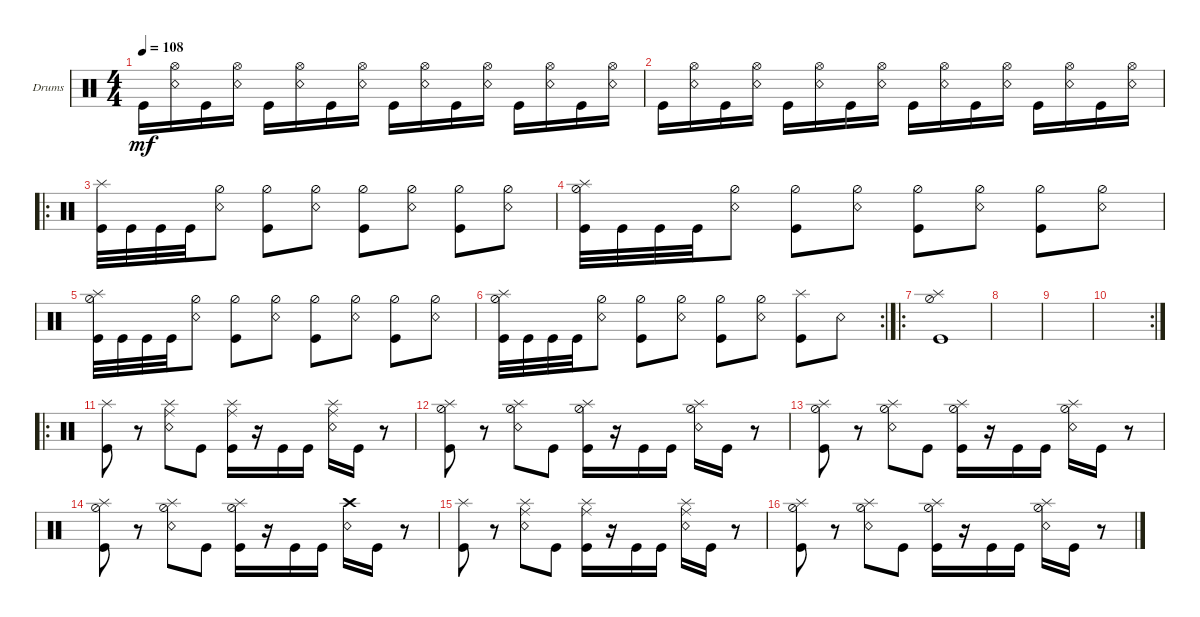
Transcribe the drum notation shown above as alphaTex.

\bracketExtendMode groupsimilarinstruments
\firstSystemTrackNameOrientation horizontal
\otherSystemsTrackNameOrientation horizontal
\track ("Drumkit" "Drums") {instrument percussion}
\staff {score}
\articulation defaults
\ts (4 4)
\tempo 108
\clef neutral
\scale
0.321839
\ks c "Kick (hit)".16{dy mf}
("Snare (rim shot)" "Hi-Hat (open)").16 "Kick (hit)".16 ("Snare (rim shot)" "Hi-Hat (open)").16 "Kick (hit)".16 ("Snare (rim shot)" "Hi-Hat (open)").16 "Kick (hit)".16 ("Snare (rim shot)" "Hi-Hat (open)").16 "Kick (hit)".16 ("Snare (rim shot)" "Hi-Hat (open)").16 "Kick (hit)".16 ("Snare (rim shot)" "Hi-Hat (open)").16 "Kick (hit)".16 ("Snare (rim shot)" "Hi-Hat (open)").16 "Kick (hit)".16 ("Snare (rim shot)" "Hi-Hat (open)").16 |
\scale
0.311111 "Kick (hit)".16 ("Snare (rim shot)" "Hi-Hat (open)").16 "Kick (hit)".16 ("Snare (rim shot)" "Hi-Hat (open)").16 "Kick (hit)".16 ("Snare (rim shot)" "Hi-Hat (open)").16 "Kick (hit)".16 ("Snare (rim shot)" "Hi-Hat (open)").16 "Kick (hit)".16 ("Snare (rim shot)" "Hi-Hat (open)").16 "Kick (hit)".16 ("Snare (rim shot)" "Hi-Hat (open)").16 "Kick (hit)".16 ("Snare (rim shot)" "Hi-Hat (open)").16 "Kick (hit)".16 ("Snare (rim shot)" "Hi-Hat (open)").16 |
\ro
\scale
0.377778 ("Kick (hit)" "Splash (hit)").32 "Kick (hit)".32 "Kick (hit)".32 "Kick (hit)".32 ("Snare (rim shot)" "Hi-Hat (half)").8 ("Kick (hit)" "Hi-Hat (half)").8 ("Snare (rim shot)" "Hi-Hat (half)").8 ("Kick (hit)" "Hi-Hat (half)").8 ("Snare (rim shot)" "Hi-Hat (half)").8 ("Kick (hit)" "Hi-Hat (half)").8 ("Snare (rim shot)" "Hi-Hat (half)").8 |
\scale
0.311111 ("Kick (hit)" "Hi-Hat (half)" "Splash (hit)").32 "Kick (hit)".32 "Kick (hit)".32 "Kick (hit)".32 ("Snare (rim shot)" "Hi-Hat (half)").8 ("Kick (hit)" "Hi-Hat (half)").8 ("Snare (rim shot)" "Hi-Hat (half)").8 ("Kick (hit)" "Hi-Hat (half)").8 ("Snare (rim shot)" "Hi-Hat (half)").8 ("Kick (hit)" "Hi-Hat (half)").8 ("Snare (rim shot)" "Hi-Hat (half)").8 |
\scale
0.301075 ("Kick (hit)" "Hi-Hat (half)" "Splash (hit)").32 "Kick (hit)".32 "Kick (hit)".32 "Kick (hit)".32 ("Snare (rim shot)" "Hi-Hat (half)").8 ("Kick (hit)" "Hi-Hat (half)").8 ("Snare (rim shot)" "Hi-Hat (half)").8 ("Kick (hit)" "Hi-Hat (half)").8 ("Snare (rim shot)" "Hi-Hat (half)").8 ("Kick (hit)" "Hi-Hat (half)").8 ("Snare (rim shot)" "Hi-Hat (half)").8 |
\rc 2
\scale
0.333333 ("Kick (hit)" "Hi-Hat (half)" "Splash (hit)").32 "Kick (hit)".32 "Kick (hit)".32 "Kick (hit)".32 ("Snare (rim shot)" "Hi-Hat (half)").8 ("Kick (hit)" "Hi-Hat (half)").8 ("Snare (rim shot)" "Hi-Hat (half)").8 ("Kick (hit)" "Hi-Hat (half)").8 ("Snare (rim shot)" "Hi-Hat (half)").8 ("Kick (hit)" "Splash (hit)").8 "Snare (rim shot)".8 |
\ro
\scale
0.365591 ("Kick (hit)" "Splash (hit)" "Hi-Hat (half)").1 |
\scale
0.321839 |
\scale
0.321839 |
\rc 2
\scale
0.356322 |
\ro
\scale
0.377778 ("Kick (hit)" "Splash (hit)").8 r.8 ("Snare (rim shot)" "Ride (middle)" "Splash (hit)").8 "Kick (hit)".8 ("Kick (hit)" "Ride (middle)" "Splash (hit)").16 r.16 "Kick (hit)".16 "Kick (hit)".16 ("Snare (rim shot)" "Ride (middle)" "Splash (hit)").16 "Kick (hit)".16 r.8 |
\scale
0.311111 ("Kick (hit)" "Hi-Hat (half)" "Splash (hit)").8 r.8 ("Snare (rim shot)" "Hi-Hat (half)" "Splash (hit)").8 "Kick (hit)".8 ("Kick (hit)" "Hi-Hat (half)" "Splash (hit)").16 r.16 "Kick (hit)".16 "Kick (hit)".16 ("Snare (rim shot)" "Hi-Hat (half)" "Splash (hit)").16 "Kick (hit)".16 r.8 |
\scale
0.311111 ("Kick (hit)" "Hi-Hat (half)" "Splash (hit)").8 r.8 ("Snare (rim shot)" "Hi-Hat (half)" "Splash (hit)").8 "Kick (hit)".8 ("Kick (hit)" "Hi-Hat (half)" "Splash (hit)").16 r.16 "Kick (hit)".16 "Kick (hit)".16 ("Snare (rim shot)" "Hi-Hat (half)" "Splash (hit)").16 "Kick (hit)".16 r.8 |
\scale
0.333333 ("Kick (hit)" "Hi-Hat (half)" "Splash (hit)").8 r.8 ("Snare (rim shot)" "Hi-Hat (half)" "Splash (hit)").8 "Kick (hit)".8 ("Kick (hit)" "Hi-Hat (half)" "Splash (hit)").16 r.16 "Kick (hit)".16 "Kick (hit)".16 ("Snare (rim shot)" "Crash high (hit)").16 "Kick (hit)".16 r.8 |
\scale
0.333333 ("Kick (hit)" "Splash (hit)").8 r.8 ("Snare (rim shot)" "Ride (middle)" "Splash (hit)").8 "Kick (hit)".8 ("Kick (hit)" "Ride (middle)" "Splash (hit)").16 r.16 "Kick (hit)".16 "Kick (hit)".16 ("Snare (rim shot)" "Ride (middle)" "Splash (hit)").16 "Kick (hit)".16 r.8 |
\scale
0.333333 ("Kick (hit)" "Hi-Hat (half)" "Splash (hit)").8 r.8 ("Snare (rim shot)" "Hi-Hat (half)" "Splash (hit)").8 "Kick (hit)".8 ("Kick (hit)" "Hi-Hat (half)" "Splash (hit)").16 r.16 "Kick (hit)".16 "Kick (hit)".16 ("Snare (rim shot)" "Hi-Hat (half)" "Splash (hit)").16 "Kick (hit)".16 r.8
